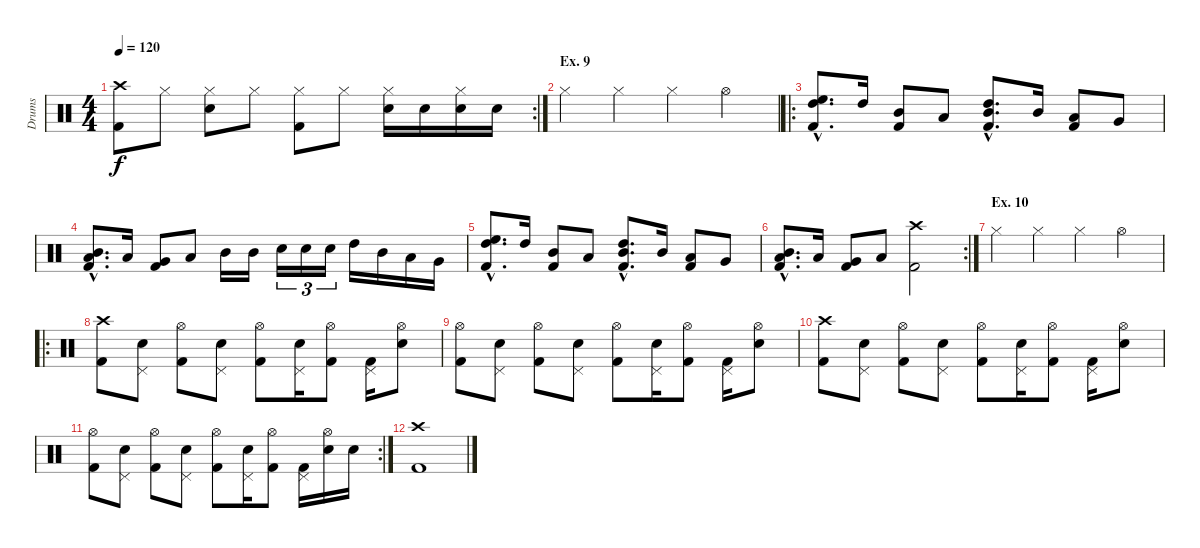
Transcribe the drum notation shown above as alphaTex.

\track ("Drums" "Drums") {instrument percussion}
\staff {score}
\articulation defaults
\rc 2
\ts (4 4)
\tempo 120
\clef neutral
\ks c
("Crash high (hit)" "Kick (hit) 2").8{dy f} "Hi-Hat (closed)".8 ("Hi-Hat (closed)" "Snare (hit) 2").8 "Hi-Hat (closed)".8 ("Hi-Hat (closed)" "Kick (hit) 2").8 "Hi-Hat (closed)".8 ("Hi-Hat (closed)" "Snare (hit) 2").16 "Snare (hit) 2".16 ("Hi-Hat (closed)" "Snare (hit) 2").16 "Snare (hit) 2".16 |
\section ("" "Ex. 9")
"Hi-Hat (closed)".4 "Hi-Hat (closed)".4 "Hi-Hat (closed)".4 "Hi-Hat (open)".4 |
\ro
("High Floor Tom (hit)"{hac} "High Tom (hit)"{hac} "Kick (hit) 2"{hac}).8{d} "High Tom (hit)".16 ("Mid Tom (hit)" "Kick (hit) 2").8 "Low Tom (hit)".8 ("High Tom (hit)"{hac} "Mid Tom (hit)"{hac} "Kick (hit) 2"{hac}).8{d} "Mid Tom (hit)".16 ("Low Tom (hit)" "Kick (hit) 2").8 "Very Low Tom (hit)".8 |
("Mid Tom (hit)"{hac} "Low Tom (hit)"{hac} "Kick (hit) 2"{hac}).8{d} "Low Tom (hit)".16 ("Very Low Tom (hit)" "Kick (hit) 2").8 "Low Floor Tom (hit)".8 "Mid Tom (hit)".16 "Mid Tom (hit)".16 "Snare (hit) 2".16{tu (3 2)} "Snare (hit) 2".16{tu (3 2)} "Snare (hit) 2".16{tu (3 2)} "High Tom (hit)".16 "Mid Tom (hit)".16 "Low Tom (hit)".16 "Very Low Tom (hit)".16 |
("High Floor Tom (hit)"{hac} "High Tom (hit)"{hac} "Kick (hit) 2"{hac}).8{d} "High Tom (hit)".16 ("Mid Tom (hit)" "Kick (hit) 2").8 "Low Tom (hit)".8 ("High Tom (hit)"{hac} "Mid Tom (hit)"{hac} "Kick (hit) 2"{hac}).8{d} "Mid Tom (hit)".16 ("Low Tom (hit)" "Kick (hit) 2").8 "Very Low Tom (hit)".8 |
\rc 2
("Mid Tom (hit)"{hac} "Low Tom (hit)"{hac} "Kick (hit) 2"{hac}).8{d} "Low Tom (hit)".16 ("Very Low Tom (hit)" "Kick (hit) 2").8 "Low Floor Tom (hit)".8 ("Crash high (hit)" "Kick (hit) 2").2 |
\section ("" "Ex. 10")
"Hi-Hat (closed)".4 "Hi-Hat (closed)".4 "Hi-Hat (closed)".4 "Hi-Hat (open)".4 |
\ro
("Crash high (hit)" "Kick (hit) 2").8 ("Pedal Hi-Hat (hit)" "Snare (hit) 2").8 ("Hi-Hat (open)" "Kick (hit) 2").8 ("Pedal Hi-Hat (hit)" "Snare (hit) 2").8 ("Hi-Hat (open)" "Kick (hit) 2").8 ("Pedal Hi-Hat (hit)" "Snare (hit) 2").16 ("Hi-Hat (open)" "Kick (hit) 2").8 ("Pedal Hi-Hat (hit)" "Kick (hit) 2").16 ("Hi-Hat (open)" "Snare (hit) 2").8 |
("Hi-Hat (open)" "Kick (hit) 2").8 ("Pedal Hi-Hat (hit)" "Snare (hit) 2").8 ("Hi-Hat (open)" "Kick (hit) 2").8 ("Pedal Hi-Hat (hit)" "Snare (hit) 2").8 ("Hi-Hat (open)" "Kick (hit) 2").8 ("Pedal Hi-Hat (hit)" "Snare (hit) 2").16 ("Hi-Hat (open)" "Kick (hit) 2").8 ("Pedal Hi-Hat (hit)" "Kick (hit) 2").16 ("Hi-Hat (open)" "Snare (hit) 2").8 |
("Crash high (hit)" "Kick (hit) 2").8 ("Pedal Hi-Hat (hit)" "Snare (hit) 2").8 ("Hi-Hat (open)" "Kick (hit) 2").8 ("Pedal Hi-Hat (hit)" "Snare (hit) 2").8 ("Hi-Hat (open)" "Kick (hit) 2").8 ("Pedal Hi-Hat (hit)" "Snare (hit) 2").16 ("Hi-Hat (open)" "Kick (hit) 2").8 ("Pedal Hi-Hat (hit)" "Kick (hit) 2").16 ("Hi-Hat (open)" "Snare (hit) 2").8 |
\rc 2
("Hi-Hat (open)" "Kick (hit) 2").8 ("Pedal Hi-Hat (hit)" "Snare (hit) 2").8 ("Hi-Hat (open)" "Kick (hit) 2").8 ("Pedal Hi-Hat (hit)" "Snare (hit) 2").8 ("Hi-Hat (open)" "Kick (hit) 2").8 ("Pedal Hi-Hat (hit)" "Snare (hit) 2").16 ("Hi-Hat (open)" "Kick (hit) 2").8 ("Pedal Hi-Hat (hit)" "Kick (hit) 2").16 ("Hi-Hat (open)" "Snare (hit) 2").16 "Snare (hit) 2".16 |
("Crash high (hit)" "Kick (hit) 2").1
